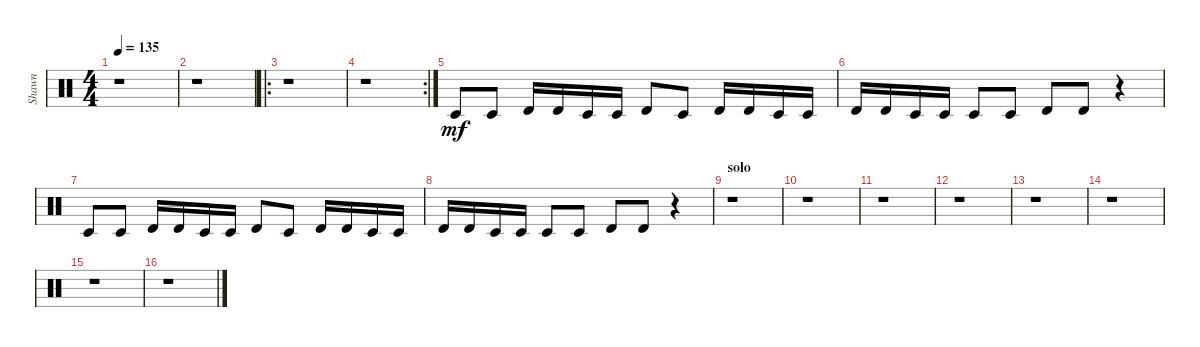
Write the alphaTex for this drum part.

\track ("Shawn" "Shawn") {instrument percussion}
\staff {score}
\articulation defaults
\ts (4 4)
\tempo 135
\clef neutral
\ks c
r.1{dy f} |
r.1 |
\ro
r.1 |
\rc 2
r.1 |
"Timbale low (hit)".8{dy mf} "Timbale low (hit)".8 "Timbale high (hit)".16 "Timbale high (hit)".16 "Timbale low (hit)".16 "Timbale low (hit)".16 "Timbale high (hit)".8 "Timbale low (hit)".8 "Timbale high (hit)".16 "Timbale high (hit)".16 "Timbale low (hit)".16 "Timbale low (hit)".16 |
"Timbale high (hit)".16 "Timbale high (hit)".16 "Timbale low (hit)".16 "Timbale low (hit)".16 "Timbale low (hit)".8 "Timbale low (hit)".8 "Timbale high (hit)".8 "Timbale high (hit)".8 r.4 |
"Timbale low (hit)".8 "Timbale low (hit)".8 "Timbale high (hit)".16 "Timbale high (hit)".16 "Timbale low (hit)".16 "Timbale low (hit)".16 "Timbale high (hit)".8 "Timbale low (hit)".8 "Timbale high (hit)".16 "Timbale high (hit)".16 "Timbale low (hit)".16 "Timbale low (hit)".16 |
"Timbale high (hit)".16 "Timbale high (hit)".16 "Timbale low (hit)".16 "Timbale low (hit)".16 "Timbale low (hit)".8 "Timbale low (hit)".8 "Timbale high (hit)".8 "Timbale high (hit)".8 r.4 |
\section ("" "solo")
r.1 |
r.1 |
r.1 |
r.1 |
r.1 |
r.1 |
r.1 |
r.1
